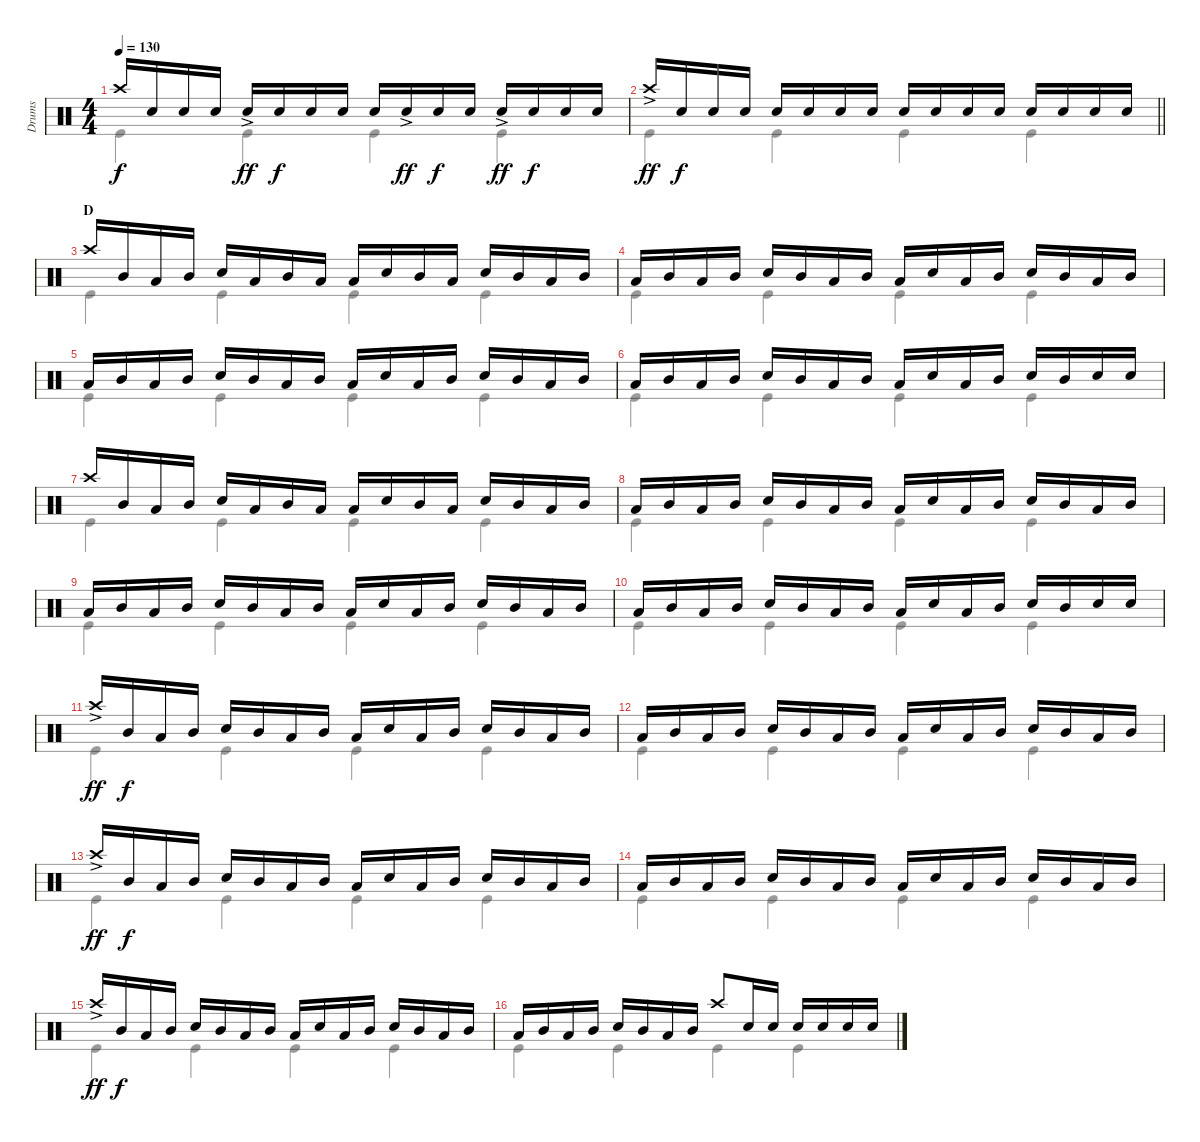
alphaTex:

\track ("Drums" "Drums") {instrument percussion}
\staff {score}
\articulation defaults
\voice
\ts (4 4)
\tempo 130
\clef neutral
\ks c "Crash high (hit)".16{dy f} "Snare (hit) 2".16 "Snare (hit) 2".16 "Snare (hit) 2".16 "Snare (hit) 2"{ac}.16{dy ff} "Snare (hit) 2".16{dy f} "Snare (hit) 2".16 "Snare (hit) 2".16 "Snare (hit) 2".16 "Snare (hit) 2"{ac}.16{dy ff} "Snare (hit) 2".16{dy f} "Snare (hit) 2".16 "Snare (hit) 2"{ac}.16{dy ff} "Snare (hit) 2".16{dy f} "Snare (hit) 2".16 "Snare (hit) 2".16
|
\barLineRight lightlight "Crash high (hit)"{ac}.16{dy ff} "Snare (hit) 2".16{dy f} "Snare (hit) 2".16 "Snare (hit) 2".16 "Snare (hit) 2".16 "Snare (hit) 2".16 "Snare (hit) 2".16 "Snare (hit) 2".16 "Snare (hit) 2".16 "Snare (hit) 2".16 "Snare (hit) 2".16 "Snare (hit) 2".16 "Snare (hit) 2".16 "Snare (hit) 2".16 "Snare (hit) 2".16 "Snare (hit) 2".16
|
\section ("" "D")
"Crash high (hit)".16 "Mid Tom (hit)".16 "Low Tom (hit)".16 "Mid Tom (hit)".16 "Snare (hit) 2".16 "Low Tom (hit)".16 "Mid Tom (hit)".16 "Low Tom (hit)".16 "Low Tom (hit)".16 "Snare (hit) 2".16 "Mid Tom (hit)".16 "Low Tom (hit)".16 "Snare (hit) 2".16 "Mid Tom (hit)".16 "Low Tom (hit)".16 "Mid Tom (hit)".16 |
"Low Tom (hit)".16 "Mid Tom (hit)".16 "Low Tom (hit)".16 "Mid Tom (hit)".16 "Snare (hit) 2".16 "Mid Tom (hit)".16 "Low Tom (hit)".16 "Mid Tom (hit)".16 "Low Tom (hit)".16 "Snare (hit) 2".16 "Low Tom (hit)".16 "Mid Tom (hit)".16 "Snare (hit) 2".16 "Mid Tom (hit)".16 "Low Tom (hit)".16 "Mid Tom (hit)".16 |
"Low Tom (hit)".16 "Mid Tom (hit)".16 "Low Tom (hit)".16 "Mid Tom (hit)".16 "Snare (hit) 2".16 "Mid Tom (hit)".16 "Low Tom (hit)".16 "Mid Tom (hit)".16 "Low Tom (hit)".16 "Snare (hit) 2".16 "Low Tom (hit)".16 "Mid Tom (hit)".16 "Snare (hit) 2".16 "Mid Tom (hit)".16 "Low Tom (hit)".16 "Mid Tom (hit)".16 |
"Low Tom (hit)".16 "Mid Tom (hit)".16 "Low Tom (hit)".16 "Mid Tom (hit)".16 "Snare (hit) 2".16 "Mid Tom (hit)".16 "Low Tom (hit)".16 "Mid Tom (hit)".16 "Low Tom (hit)".16 "Snare (hit) 2".16 "Low Tom (hit)".16 "Mid Tom (hit)".16 "Snare (hit) 2".16 "Mid Tom (hit)".16 "Snare (hit) 2".16 "Snare (hit) 2".16 |
"Crash high (hit)".16 "Mid Tom (hit)".16 "Low Tom (hit)".16 "Mid Tom (hit)".16 "Snare (hit) 2".16 "Low Tom (hit)".16 "Mid Tom (hit)".16 "Low Tom (hit)".16 "Low Tom (hit)".16 "Snare (hit) 2".16 "Mid Tom (hit)".16 "Low Tom (hit)".16 "Snare (hit) 2".16 "Mid Tom (hit)".16 "Low Tom (hit)".16 "Mid Tom (hit)".16 |
"Low Tom (hit)".16 "Mid Tom (hit)".16 "Low Tom (hit)".16 "Mid Tom (hit)".16 "Snare (hit) 2".16 "Mid Tom (hit)".16 "Low Tom (hit)".16 "Mid Tom (hit)".16 "Low Tom (hit)".16 "Snare (hit) 2".16 "Low Tom (hit)".16 "Mid Tom (hit)".16 "Snare (hit) 2".16 "Mid Tom (hit)".16 "Low Tom (hit)".16 "Mid Tom (hit)".16 |
"Low Tom (hit)".16 "Mid Tom (hit)".16 "Low Tom (hit)".16 "Mid Tom (hit)".16 "Snare (hit) 2".16 "Mid Tom (hit)".16 "Low Tom (hit)".16 "Mid Tom (hit)".16 "Low Tom (hit)".16 "Snare (hit) 2".16 "Low Tom (hit)".16 "Mid Tom (hit)".16 "Snare (hit) 2".16 "Mid Tom (hit)".16 "Low Tom (hit)".16 "Mid Tom (hit)".16 |
"Low Tom (hit)".16 "Mid Tom (hit)".16 "Low Tom (hit)".16 "Mid Tom (hit)".16 "Snare (hit) 2".16 "Mid Tom (hit)".16 "Low Tom (hit)".16 "Mid Tom (hit)".16 "Low Tom (hit)".16 "Snare (hit) 2".16 "Low Tom (hit)".16 "Mid Tom (hit)".16 "Snare (hit) 2".16 "Mid Tom (hit)".16 "Snare (hit) 2".16 "Snare (hit) 2".16 |
"Crash high (hit)"{ac}.16{dy ff} "Mid Tom (hit)".16{dy f} "Low Tom (hit)".16 "Mid Tom (hit)".16 "Snare (hit) 2".16 "Mid Tom (hit)".16 "Low Tom (hit)".16 "Mid Tom (hit)".16 "Low Tom (hit)".16 "Snare (hit) 2".16 "Low Tom (hit)".16 "Mid Tom (hit)".16 "Snare (hit) 2".16 "Mid Tom (hit)".16 "Low Tom (hit)".16 "Mid Tom (hit)".16 |
"Low Tom (hit)".16 "Mid Tom (hit)".16 "Low Tom (hit)".16 "Mid Tom (hit)".16 "Snare (hit) 2".16 "Mid Tom (hit)".16 "Low Tom (hit)".16 "Mid Tom (hit)".16 "Low Tom (hit)".16 "Snare (hit) 2".16 "Low Tom (hit)".16 "Mid Tom (hit)".16 "Snare (hit) 2".16 "Mid Tom (hit)".16 "Low Tom (hit)".16 "Mid Tom (hit)".16 |
"Crash high (hit)"{ac}.16{dy ff} "Mid Tom (hit)".16{dy f} "Low Tom (hit)".16 "Mid Tom (hit)".16 "Snare (hit) 2".16 "Mid Tom (hit)".16 "Low Tom (hit)".16 "Mid Tom (hit)".16 "Low Tom (hit)".16 "Snare (hit) 2".16 "Low Tom (hit)".16 "Mid Tom (hit)".16 "Snare (hit) 2".16 "Mid Tom (hit)".16 "Low Tom (hit)".16 "Mid Tom (hit)".16 |
"Low Tom (hit)".16 "Mid Tom (hit)".16 "Low Tom (hit)".16 "Mid Tom (hit)".16 "Snare (hit) 2".16 "Mid Tom (hit)".16 "Low Tom (hit)".16 "Mid Tom (hit)".16 "Low Tom (hit)".16 "Snare (hit) 2".16 "Low Tom (hit)".16 "Mid Tom (hit)".16 "Snare (hit) 2".16 "Mid Tom (hit)".16 "Low Tom (hit)".16 "Mid Tom (hit)".16 |
"Crash high (hit)"{ac}.16{dy ff} "Mid Tom (hit)".16{dy f} "Low Tom (hit)".16 "Mid Tom (hit)".16 "Snare (hit) 2".16 "Mid Tom (hit)".16 "Low Tom (hit)".16 "Mid Tom (hit)".16 "Low Tom (hit)".16 "Snare (hit) 2".16 "Low Tom (hit)".16 "Mid Tom (hit)".16 "Snare (hit) 2".16 "Mid Tom (hit)".16 "Low Tom (hit)".16 "Mid Tom (hit)".16 |
"Low Tom (hit)".16 "Mid Tom (hit)".16 "Low Tom (hit)".16 "Mid Tom (hit)".16 "Snare (hit) 2".16 "Mid Tom (hit)".16 "Low Tom (hit)".16 "Mid Tom (hit)".16 "Crash high (hit)".8 "Snare (hit) 2".16 "Snare (hit) 2".16 "Snare (hit) 2".16 "Snare (hit) 2".16 "Snare (hit) 2".16 "Snare (hit) 2".16
\voice
\clef neutral
\ottava regular
\simile none
\ks c "Kick (hit)".4{dy f} "Kick (hit)".4 "Kick (hit)".4 "Kick (hit)".4
|
\barLineRight lightlight "Kick (hit)".4 "Kick (hit)".4 "Kick (hit)".4 "Kick (hit)".4
|
"Kick (hit)".4 "Kick (hit)".4 "Kick (hit)".4 "Kick (hit)".4 |
"Kick (hit)".4 "Kick (hit)".4 "Kick (hit)".4 "Kick (hit)".4 |
"Kick (hit)".4 "Kick (hit)".4 "Kick (hit)".4 "Kick (hit)".4 |
"Kick (hit)".4 "Kick (hit)".4 "Kick (hit)".4 "Kick (hit)".4 |
"Kick (hit)".4 "Kick (hit)".4 "Kick (hit)".4 "Kick (hit)".4 |
"Kick (hit)".4 "Kick (hit)".4 "Kick (hit)".4 "Kick (hit)".4 |
"Kick (hit)".4 "Kick (hit)".4 "Kick (hit)".4 "Kick (hit)".4 |
"Kick (hit)".4 "Kick (hit)".4 "Kick (hit)".4 "Kick (hit)".4 |
"Kick (hit)".4 "Kick (hit)".4 "Kick (hit)".4 "Kick (hit)".4 |
"Kick (hit)".4 "Kick (hit)".4 "Kick (hit)".4 "Kick (hit)".4 |
"Kick (hit)".4 "Kick (hit)".4 "Kick (hit)".4 "Kick (hit)".4 |
"Kick (hit)".4 "Kick (hit)".4 "Kick (hit)".4 "Kick (hit)".4 |
"Kick (hit)".4 "Kick (hit)".4 "Kick (hit)".4 "Kick (hit)".4 |
"Kick (hit)".4 "Kick (hit)".4 "Kick (hit)".4 "Kick (hit)".4
